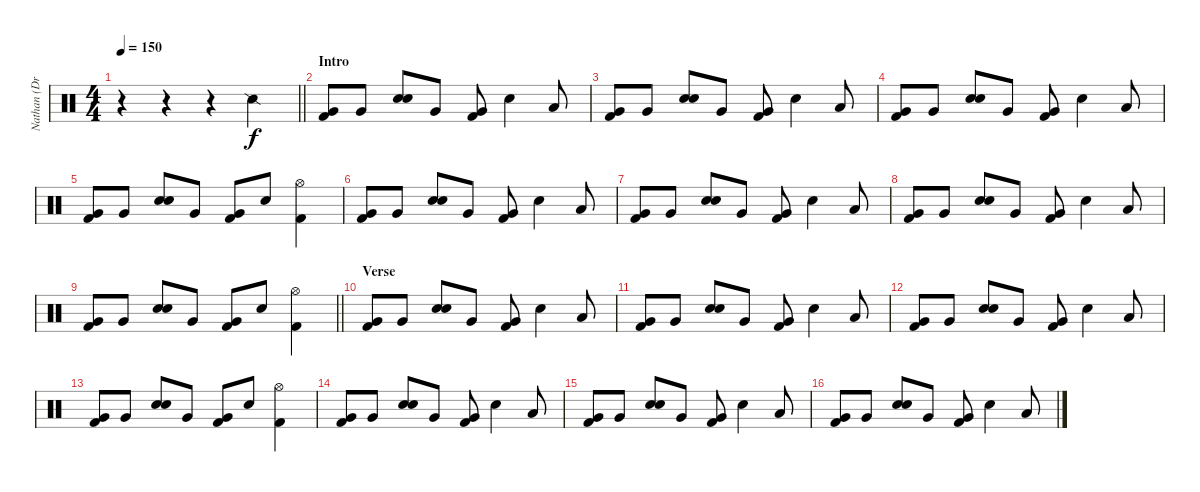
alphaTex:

\track ("Nathan (Drums)" "Nathan (Dr") {instrument percussion}
\staff {score}
\articulation defaults
\ts (4 4)
\tempo 150
\clef neutral
\barLineRight lightlight
\ks c
r.4{dy f} r.4 r.4 "Snare (side stick) 2".4 |
\section ("" "Intro")
("Very Low Tom (hit)" "Kick (hit) 2").8 "Very Low Tom (hit)".8 ("Electric Snare (hit)" "Electric Snare (hit)").8 "Very Low Tom (hit)".8 ("Very Low Tom (hit)" "Kick (hit) 2").8 "Electric Snare (hit)".4 "Low Tom (hit)".8 |
("Very Low Tom (hit)" "Kick (hit) 2").8 "Very Low Tom (hit)".8 ("Electric Snare (hit)" "Electric Snare (hit)").8 "Very Low Tom (hit)".8 ("Very Low Tom (hit)" "Kick (hit) 2").8 "Electric Snare (hit)".4 "Low Tom (hit)".8 |
("Very Low Tom (hit)" "Kick (hit) 2").8 "Very Low Tom (hit)".8 ("Electric Snare (hit)" "Electric Snare (hit)").8 "Very Low Tom (hit)".8 ("Very Low Tom (hit)" "Kick (hit) 2").8 "Electric Snare (hit)".4 "Low Tom (hit)".8 |
("Very Low Tom (hit)" "Kick (hit) 2").8 "Very Low Tom (hit)".8 ("Electric Snare (hit)" "Electric Snare (hit)").8 "Very Low Tom (hit)".8 ("Very Low Tom (hit)" "Kick (hit) 2").8 "Electric Snare (hit)".8 ("Hi-Hat (open)" "Kick (hit) 2").4 |
("Very Low Tom (hit)" "Kick (hit) 2").8 "Very Low Tom (hit)".8 ("Electric Snare (hit)" "Electric Snare (hit)").8 "Very Low Tom (hit)".8 ("Very Low Tom (hit)" "Kick (hit) 2").8 "Electric Snare (hit)".4 "Low Tom (hit)".8 |
("Very Low Tom (hit)" "Kick (hit) 2").8 "Very Low Tom (hit)".8 ("Electric Snare (hit)" "Electric Snare (hit)").8 "Very Low Tom (hit)".8 ("Very Low Tom (hit)" "Kick (hit) 2").8 "Electric Snare (hit)".4 "Low Tom (hit)".8 |
("Very Low Tom (hit)" "Kick (hit) 2").8 "Very Low Tom (hit)".8 ("Electric Snare (hit)" "Electric Snare (hit)").8 "Very Low Tom (hit)".8 ("Very Low Tom (hit)" "Kick (hit) 2").8 "Electric Snare (hit)".4 "Low Tom (hit)".8 |
\barLineRight lightlight
("Very Low Tom (hit)" "Kick (hit) 2").8 "Very Low Tom (hit)".8 ("Electric Snare (hit)" "Electric Snare (hit)").8 "Very Low Tom (hit)".8 ("Very Low Tom (hit)" "Kick (hit) 2").8 "Electric Snare (hit)".8 ("Hi-Hat (open)" "Kick (hit) 2").4 |
\section ("" "Verse")
("Very Low Tom (hit)" "Kick (hit) 2").8 "Very Low Tom (hit)".8 ("Electric Snare (hit)" "Electric Snare (hit)").8 "Very Low Tom (hit)".8 ("Very Low Tom (hit)" "Kick (hit) 2").8 "Electric Snare (hit)".4 "Low Tom (hit)".8 |
("Very Low Tom (hit)" "Kick (hit) 2").8 "Very Low Tom (hit)".8 ("Electric Snare (hit)" "Electric Snare (hit)").8 "Very Low Tom (hit)".8 ("Very Low Tom (hit)" "Kick (hit) 2").8 "Electric Snare (hit)".4 "Low Tom (hit)".8 |
("Very Low Tom (hit)" "Kick (hit) 2").8 "Very Low Tom (hit)".8 ("Electric Snare (hit)" "Electric Snare (hit)").8 "Very Low Tom (hit)".8 ("Very Low Tom (hit)" "Kick (hit) 2").8 "Electric Snare (hit)".4 "Low Tom (hit)".8 |
("Very Low Tom (hit)" "Kick (hit) 2").8 "Very Low Tom (hit)".8 ("Electric Snare (hit)" "Electric Snare (hit)").8 "Very Low Tom (hit)".8 ("Very Low Tom (hit)" "Kick (hit) 2").8 "Electric Snare (hit)".8 ("Hi-Hat (open)" "Kick (hit) 2").4 |
("Very Low Tom (hit)" "Kick (hit) 2").8 "Very Low Tom (hit)".8 ("Electric Snare (hit)" "Electric Snare (hit)").8 "Very Low Tom (hit)".8 ("Very Low Tom (hit)" "Kick (hit) 2").8 "Electric Snare (hit)".4 "Low Tom (hit)".8 |
("Very Low Tom (hit)" "Kick (hit) 2").8 "Very Low Tom (hit)".8 ("Electric Snare (hit)" "Electric Snare (hit)").8 "Very Low Tom (hit)".8 ("Very Low Tom (hit)" "Kick (hit) 2").8 "Electric Snare (hit)".4 "Low Tom (hit)".8 |
("Very Low Tom (hit)" "Kick (hit) 2").8 "Very Low Tom (hit)".8 ("Electric Snare (hit)" "Electric Snare (hit)").8 "Very Low Tom (hit)".8 ("Very Low Tom (hit)" "Kick (hit) 2").8 "Electric Snare (hit)".4 "Low Tom (hit)".8
